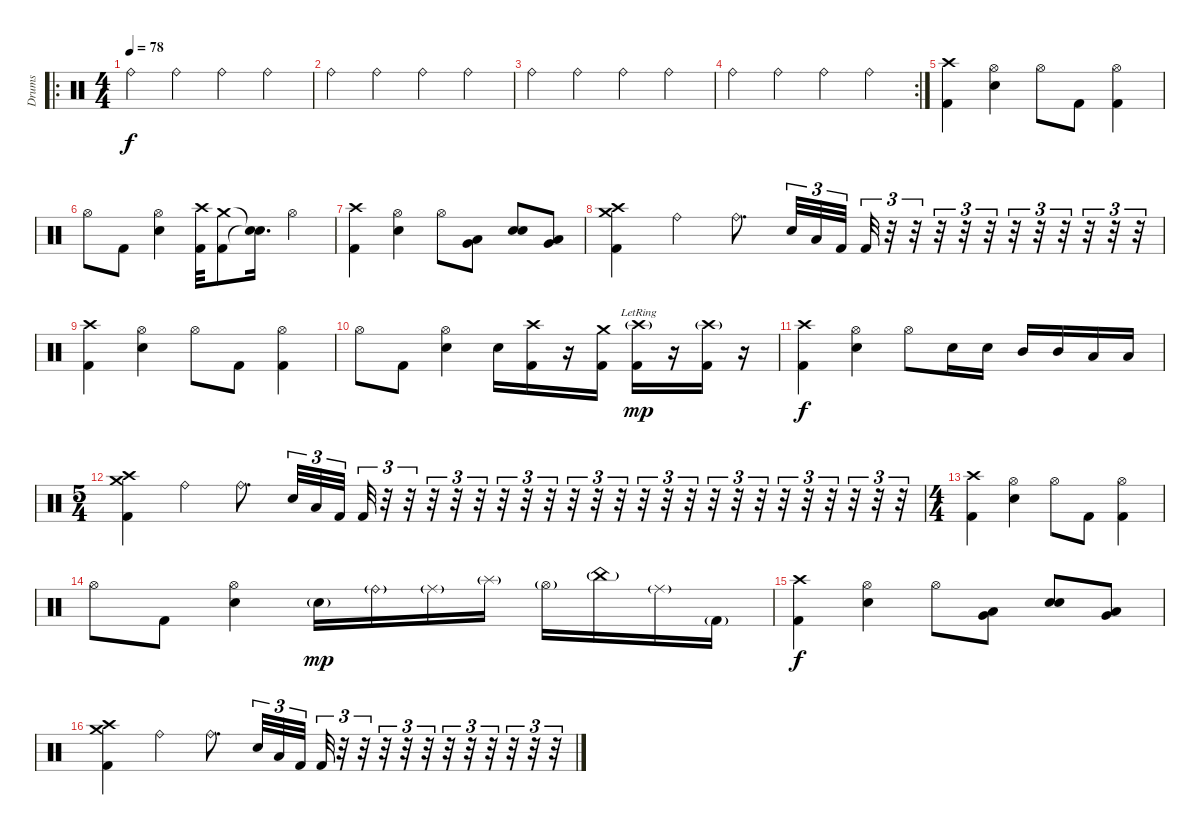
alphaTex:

\track ("Drums" "Drums") {instrument percussion}
\staff {score}
\articulation defaults
\ro
\ts (4 4)
\tempo 78
\clef neutral
\ks c "Ride (bell)".4{dy f} "Ride (bell)".4 "Ride (bell)".4 "Ride (bell)".4
|
"Ride (bell)".4 "Ride (bell)".4 "Ride (bell)".4 "Ride (bell)".4 |
"Ride (bell)".4 "Ride (bell)".4 "Ride (bell)".4 "Ride (bell)".4 |
\rc 2 "Ride (bell)".4 "Ride (bell)".4 "Ride (bell)".4 "Ride (bell)".4
|
("Crash high (hit)" "Kick (hit) 2").4 ("Hi-Hat (open)" "Electric Snare (hit)").4 "Hi-Hat (open)".8 "Kick (hit) 2".8 ("Hi-Hat (open)" "Kick (hit) 2").4 |
"Hi-Hat (open)".8 "Kick (hit) 2".8 ("Hi-Hat (open)" "Electric Snare (hit)").4 ("Crash high (hit)" "Kick (hit) 2").32 ("Crash medium (hit)" "Kick (hit) 2").8 ("Snare (hit)"{t} "Snare (hit)"{t}).16{d} "Hi-Hat (open)".4 |
("Crash high (hit)" "Kick (hit) 2").4 ("Hi-Hat (open)" "Electric Snare (hit)").4 "Hi-Hat (open)".8 ("Low Tom (hit)" "Very Low Tom (hit)").8 ("Electric Snare (hit)" "Electric Snare (hit)").8 ("Low Tom (hit)" "Very Low Tom (hit)").8 |
("Crash medium (hit)" "Kick (hit) 2" "Crash high (hit)").4 "Ride (bell)".4 "Ride (bell)".8{d} "Electric Snare (hit)".32{tu (3 2)} "Low Tom (hit)".32{tu (3 2)} "Kick (hit) 2".32{tu (3 2)} "Kick (hit) 2".32{tu (3 2)} r.32{tu (3 2)} r.32{tu (3 2)} r.32{tu (3 2)} r.32{tu (3 2)} r.32{tu (3 2)} r.32{tu (3 2)} r.32{tu (3 2)} r.32{tu (3 2)} r.32{tu (3 2)} r.32{tu (3 2)} r.32{tu (3 2)} |
("Crash high (hit)" "Kick (hit) 2").4 ("Hi-Hat (open)" "Electric Snare (hit)").4 "Hi-Hat (open)".8 "Kick (hit) 2".8 ("Hi-Hat (open)" "Kick (hit) 2").4 |
"Hi-Hat (open)".8 "Kick (hit) 2".8 ("Hi-Hat (open)" "Electric Snare (hit)").4 "Electric Snare (hit)".16 ("Crash high (hit)" "Kick (hit) 2").16 r.16 ("Crash medium (hit)" "Kick (hit) 2").16 ("Crash high (hit)"{g lr} "Kick (hit) 2").16{dy mp} r.16 ("Crash high (hit)"{g} "Kick (hit) 2").16 r.16 |
("Crash high (hit)" "Kick (hit) 2").4{dy f} ("Hi-Hat (open)" "Electric Snare (hit)").4 "Hi-Hat (open)".8 "Electric Snare (hit)".16 "Electric Snare (hit)".16 "Mid Tom (hit)".16 "Mid Tom (hit)".16 "Low Tom (hit)".16 "Low Tom (hit)".16 |
\ts (5 4)
("Crash medium (hit)" "Kick (hit) 2" "Crash high (hit)").4 "Ride (bell)".4 "Ride (bell)".8{d} "Electric Snare (hit)".32{tu (3 2)} "Low Tom (hit)".32{tu (3 2)} "Kick (hit) 2".32{tu (3 2)} "Kick (hit) 2".32{tu (3 2)} r.32{tu (3 2)} r.32{tu (3 2)} r.32{tu (3 2)} r.32{tu (3 2)} r.32{tu (3 2)} r.32{tu (3 2)} r.32{tu (3 2)} r.32{tu (3 2)} r.32{tu (3 2)} r.32{tu (3 2)} r.32{tu (3 2)} r.32{tu (3 2)} r.32{tu (3 2)} r.32{tu (3 2)} r.32{tu (3 2)} r.32{tu (3 2)} r.32{tu (3 2)} r.32{tu (3 2)} r.32{tu (3 2)} r.32{tu (3 2)} r.32{tu (3 2)} r.32{tu (3 2)} r.32{tu (3 2)} |
\ts (4 4)
("Crash high (hit)" "Kick (hit) 2").4 ("Hi-Hat (open)" "Electric Snare (hit)").4 "Hi-Hat (open)".8 "Kick (hit) 2".8 ("Hi-Hat (open)" "Kick (hit) 2").4 |
"Hi-Hat (open)".8 "Kick (hit) 2".8 ("Electric Snare (hit)" "Hi-Hat (open)").4 "Electric Snare (hit)"{g}.16{dy mp} "Ride (bell)"{g}.16 "Ride (middle)"{g}.16 "Splash (hit)"{g}.16 "Hi-Hat (open)"{g}.16 "China (hit)"{g}.16 "Ride (middle)"{g}.16 "Kick (hit) 2"{g}.16 |
("Crash high (hit)" "Kick (hit) 2").4{dy f} ("Hi-Hat (open)" "Electric Snare (hit)").4 "Hi-Hat (open)".8 ("Low Tom (hit)" "Very Low Tom (hit)").8 ("Electric Snare (hit)" "Electric Snare (hit)").8 ("Low Tom (hit)" "Very Low Tom (hit)").8 |
("Crash medium (hit)" "Kick (hit) 2" "Crash high (hit)").4 "Ride (bell)".4 "Ride (bell)".8{d} "Electric Snare (hit)".32{tu (3 2)} "Low Tom (hit)".32{tu (3 2)} "Kick (hit) 2".32{tu (3 2)} "Kick (hit) 2".32{tu (3 2)} r.32{tu (3 2)} r.32{tu (3 2)} r.32{tu (3 2)} r.32{tu (3 2)} r.32{tu (3 2)} r.32{tu (3 2)} r.32{tu (3 2)} r.32{tu (3 2)} r.32{tu (3 2)} r.32{tu (3 2)} r.32{tu (3 2)}
